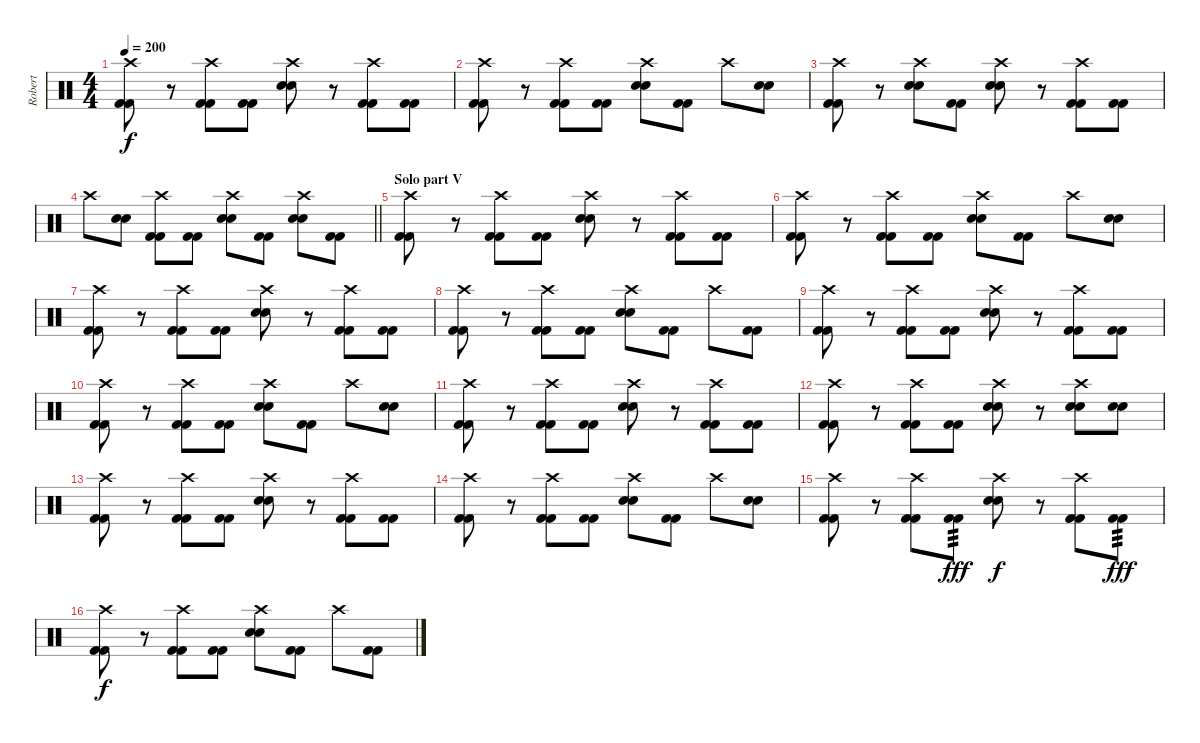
\track ("Robert" "Robert") {instrument percussion}
\staff {score}
\articulation defaults
\ts (4 4)
\tempo 200
\clef neutral
\ks c
("Crash high (hit)" "Kick (hit) 2" "Kick (hit) 2").8{dy f} r.8 ("Crash high (hit)" "Kick (hit) 2" "Kick (hit) 2").8 ("Kick (hit) 2" "Kick (hit) 2").8 ("Crash high (hit)" "Electric Snare (hit)" "Electric Snare (hit)").8 r.8 ("Crash high (hit)" "Kick (hit) 2" "Kick (hit) 2").8 ("Kick (hit) 2" "Kick (hit) 2").8 |
("Crash high (hit)" "Kick (hit) 2" "Kick (hit) 2").8 r.8 ("Crash high (hit)" "Kick (hit) 2" "Kick (hit) 2").8 ("Kick (hit) 2" "Kick (hit) 2").8 ("Crash high (hit)" "Electric Snare (hit)" "Electric Snare (hit)").8 ("Kick (hit) 2" "Kick (hit) 2").8 "Crash high (hit)".8 ("Electric Snare (hit)" "Electric Snare (hit)").8 |
("Crash high (hit)" "Kick (hit) 2" "Kick (hit) 2").8 r.8 ("Crash high (hit)" "Electric Snare (hit)" "Electric Snare (hit)").8 ("Kick (hit) 2" "Kick (hit) 2").8 ("Crash high (hit)" "Electric Snare (hit)" "Electric Snare (hit)").8 r.8 ("Crash high (hit)" "Kick (hit) 2" "Kick (hit) 2").8 ("Kick (hit) 2" "Kick (hit) 2").8 |
\barLineRight lightlight "Crash high (hit)".8
("Electric Snare (hit)" "Electric Snare (hit)").8 ("Crash high (hit)" "Kick (hit) 2" "Kick (hit) 2").8 ("Kick (hit) 2" "Kick (hit) 2").8 ("Crash high (hit)" "Electric Snare (hit)" "Electric Snare (hit)").8 ("Kick (hit) 2" "Kick (hit) 2").8 ("Crash high (hit)" "Electric Snare (hit)" "Electric Snare (hit)").8 ("Kick (hit) 2" "Kick (hit) 2").8 |
\section ("" "Solo part V")
("Crash high (hit)" "Kick (hit) 2" "Kick (hit) 2").8 r.8 ("Crash high (hit)" "Kick (hit) 2" "Kick (hit) 2").8 ("Kick (hit) 2" "Kick (hit) 2").8 ("Crash high (hit)" "Electric Snare (hit)" "Electric Snare (hit)").8 r.8 ("Crash high (hit)" "Kick (hit) 2" "Kick (hit) 2").8 ("Kick (hit) 2" "Kick (hit) 2").8 |
("Crash high (hit)" "Kick (hit) 2" "Kick (hit) 2").8 r.8 ("Crash high (hit)" "Kick (hit) 2" "Kick (hit) 2").8 ("Kick (hit) 2" "Kick (hit) 2").8 ("Crash high (hit)" "Electric Snare (hit)" "Electric Snare (hit)").8 ("Kick (hit) 2" "Kick (hit) 2").8 "Crash high (hit)".8 ("Electric Snare (hit)" "Electric Snare (hit)").8 |
("Crash high (hit)" "Kick (hit) 2" "Kick (hit) 2").8 r.8 ("Crash high (hit)" "Kick (hit) 2" "Kick (hit) 2").8 ("Kick (hit) 2" "Kick (hit) 2").8 ("Crash high (hit)" "Electric Snare (hit)" "Electric Snare (hit)").8 r.8 ("Crash high (hit)" "Kick (hit) 2" "Kick (hit) 2").8 ("Kick (hit) 2" "Kick (hit) 2").8 |
("Crash high (hit)" "Kick (hit) 2" "Kick (hit) 2").8 r.8 ("Crash high (hit)" "Kick (hit) 2" "Kick (hit) 2").8 ("Kick (hit) 2" "Kick (hit) 2").8 ("Crash high (hit)" "Electric Snare (hit)" "Electric Snare (hit)").8 ("Kick (hit) 2" "Kick (hit) 2").8 "Crash high (hit)".8 ("Kick (hit) 2" "Kick (hit) 2").8 |
("Crash high (hit)" "Kick (hit) 2" "Kick (hit) 2").8 r.8 ("Crash high (hit)" "Kick (hit) 2" "Kick (hit) 2").8 ("Kick (hit) 2" "Kick (hit) 2").8 ("Crash high (hit)" "Electric Snare (hit)" "Electric Snare (hit)").8 r.8 ("Crash high (hit)" "Kick (hit) 2" "Kick (hit) 2").8 ("Kick (hit) 2" "Kick (hit) 2").8 |
("Crash high (hit)" "Kick (hit) 2" "Kick (hit) 2").8 r.8 ("Crash high (hit)" "Kick (hit) 2" "Kick (hit) 2").8 ("Kick (hit) 2" "Kick (hit) 2").8 ("Crash high (hit)" "Electric Snare (hit)" "Electric Snare (hit)").8 ("Kick (hit) 2" "Kick (hit) 2").8 "Crash high (hit)".8 ("Electric Snare (hit)" "Electric Snare (hit)").8 |
("Crash high (hit)" "Kick (hit) 2" "Kick (hit) 2").8 r.8 ("Crash high (hit)" "Kick (hit) 2" "Kick (hit) 2").8 ("Kick (hit) 2" "Kick (hit) 2").8 ("Crash high (hit)" "Electric Snare (hit)" "Electric Snare (hit)").8 r.8 ("Crash high (hit)" "Kick (hit) 2" "Kick (hit) 2").8 ("Kick (hit) 2" "Kick (hit) 2").8 |
("Crash high (hit)" "Kick (hit) 2" "Kick (hit) 2").8 r.8 ("Crash high (hit)" "Kick (hit) 2" "Kick (hit) 2").8 ("Kick (hit) 2" "Kick (hit) 2").8 ("Crash high (hit)" "Electric Snare (hit)" "Electric Snare (hit)").8 r.8 ("Crash high (hit)" "Electric Snare (hit)" "Electric Snare (hit)").8 ("Electric Snare (hit)" "Electric Snare (hit)").8 |
("Crash high (hit)" "Kick (hit) 2" "Kick (hit) 2").8 r.8 ("Crash high (hit)" "Kick (hit) 2" "Kick (hit) 2").8 ("Kick (hit) 2" "Kick (hit) 2").8 ("Crash high (hit)" "Electric Snare (hit)" "Electric Snare (hit)").8 r.8 ("Crash high (hit)" "Kick (hit) 2" "Kick (hit) 2").8 ("Kick (hit) 2" "Kick (hit) 2").8 |
("Crash high (hit)" "Kick (hit) 2" "Kick (hit) 2").8 r.8 ("Crash high (hit)" "Kick (hit) 2" "Kick (hit) 2").8 ("Kick (hit) 2" "Kick (hit) 2").8 ("Crash high (hit)" "Electric Snare (hit)" "Electric Snare (hit)").8 ("Kick (hit) 2" "Kick (hit) 2").8 "Crash high (hit)".8 ("Electric Snare (hit)" "Electric Snare (hit)").8 |
("Crash high (hit)" "Kick (hit) 2" "Kick (hit) 2").8 r.8 ("Crash high (hit)" "Kick (hit) 2" "Kick (hit) 2").8 ("Kick (hit) 2" "Kick (hit) 2").8{tp 3 dy fff} ("Crash high (hit)" "Electric Snare (hit)" "Electric Snare (hit)").8{dy f} r.8 ("Crash high (hit)" "Kick (hit) 2" "Kick (hit) 2").8 ("Kick (hit) 2" "Kick (hit) 2").8{tp 3 dy fff} |
("Crash high (hit)" "Kick (hit) 2" "Kick (hit) 2").8{dy f} r.8 ("Crash high (hit)" "Kick (hit) 2" "Kick (hit) 2").8 ("Kick (hit) 2" "Kick (hit) 2").8 ("Crash high (hit)" "Electric Snare (hit)" "Electric Snare (hit)").8 ("Kick (hit) 2" "Kick (hit) 2").8 "Crash high (hit)".8 ("Kick (hit) 2" "Kick (hit) 2").8
